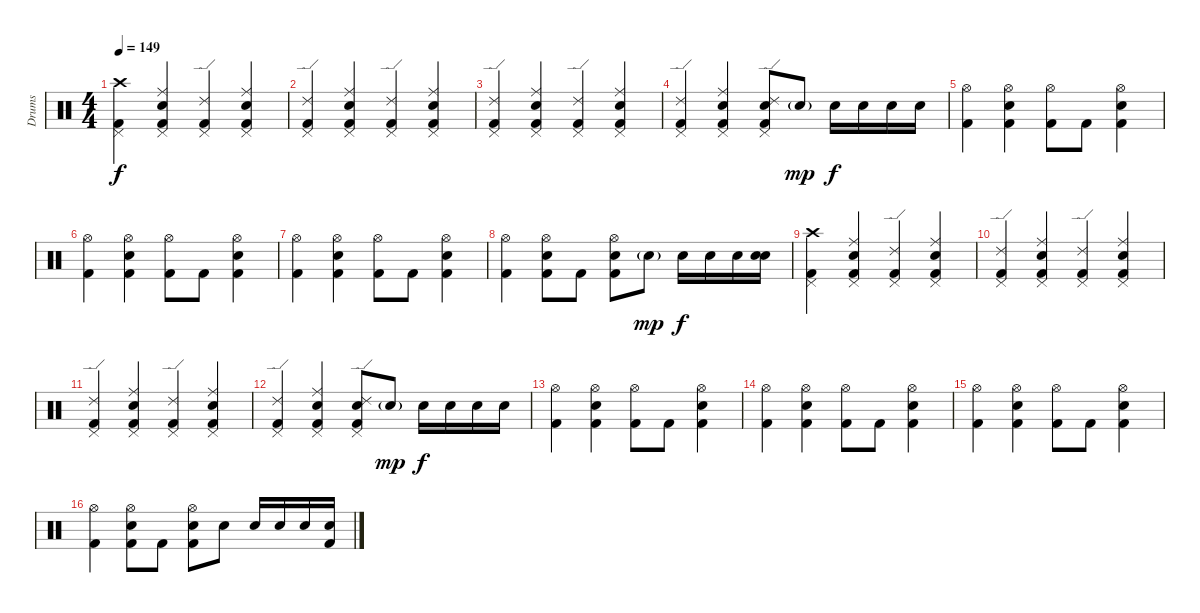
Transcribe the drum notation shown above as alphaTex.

\track ("Drums" "Drums") {instrument percussion}
\staff {score}
\articulation defaults
\ts (4 4)
\tempo 149
\clef neutral
\ks c
("Crash high (hit)" "Kick (hit) 2" "Pedal Hi-Hat (hit)").4{dy f} ("Ride (middle)" "Electric Snare (hit)" "Kick (hit) 2" "Pedal Hi-Hat (hit)").4 ("Ride (edge) 2" "Kick (hit) 2" "Pedal Hi-Hat (hit)").4 ("Ride (middle)" "Electric Snare (hit)" "Kick (hit) 2" "Pedal Hi-Hat (hit)").4 |
("Ride (edge) 2" "Kick (hit) 2" "Pedal Hi-Hat (hit)").4 ("Ride (middle)" "Electric Snare (hit)" "Kick (hit) 2" "Pedal Hi-Hat (hit)").4 ("Ride (edge) 2" "Kick (hit) 2" "Pedal Hi-Hat (hit)").4 ("Ride (middle)" "Electric Snare (hit)" "Kick (hit) 2" "Pedal Hi-Hat (hit)").4 |
("Ride (edge) 2" "Kick (hit) 2" "Pedal Hi-Hat (hit)").4 ("Ride (middle)" "Electric Snare (hit)" "Kick (hit) 2" "Pedal Hi-Hat (hit)").4 ("Ride (edge) 2" "Kick (hit) 2" "Pedal Hi-Hat (hit)").4 ("Ride (middle)" "Electric Snare (hit)" "Kick (hit) 2" "Pedal Hi-Hat (hit)").4 |
("Ride (edge) 2" "Kick (hit) 2" "Pedal Hi-Hat (hit)").4 ("Ride (middle)" "Electric Snare (hit)" "Kick (hit) 2" "Pedal Hi-Hat (hit)").4 ("Ride (edge) 2" "Electric Snare (hit)" "Kick (hit) 2" "Pedal Hi-Hat (hit)").8 "Electric Snare (hit)"{g}.8{dy mp} "Electric Snare (hit)".16{dy f} "Electric Snare (hit)".16 "Electric Snare (hit)".16 "Electric Snare (hit)".16 |
("Hi-Hat (open)" "Kick (hit) 2").4 ("Hi-Hat (open)" "Electric Snare (hit)" "Kick (hit) 2").4 ("Hi-Hat (open)" "Kick (hit) 2").8 "Kick (hit) 2".8 ("Hi-Hat (open)" "Electric Snare (hit)" "Kick (hit) 2").4 |
("Hi-Hat (open)" "Kick (hit) 2").4 ("Hi-Hat (open)" "Electric Snare (hit)" "Kick (hit) 2").4 ("Hi-Hat (open)" "Kick (hit) 2").8 "Kick (hit) 2".8 ("Hi-Hat (open)" "Electric Snare (hit)" "Kick (hit) 2").4 |
("Hi-Hat (open)" "Kick (hit) 2").4 ("Hi-Hat (open)" "Electric Snare (hit)" "Kick (hit) 2").4 ("Hi-Hat (open)" "Kick (hit) 2").8 "Kick (hit) 2".8 ("Hi-Hat (open)" "Electric Snare (hit)" "Kick (hit) 2").4 |
("Hi-Hat (open)" "Kick (hit) 2").4 ("Hi-Hat (open)" "Electric Snare (hit)" "Kick (hit) 2").8 "Kick (hit) 2".8 ("Hi-Hat (open)" "Electric Snare (hit)" "Kick (hit) 2").8 "Electric Snare (hit)"{g}.8{dy mp} "Electric Snare (hit)".16{dy f} "Electric Snare (hit)".16 "Electric Snare (hit)".16 ("Electric Snare (hit)" "Snare (hit) 2").16 |
("Crash high (hit)" "Kick (hit) 2" "Pedal Hi-Hat (hit)").4 ("Ride (middle)" "Electric Snare (hit)" "Kick (hit) 2" "Pedal Hi-Hat (hit)").4 ("Ride (edge) 2" "Kick (hit) 2" "Pedal Hi-Hat (hit)").4 ("Ride (middle)" "Electric Snare (hit)" "Kick (hit) 2" "Pedal Hi-Hat (hit)").4 |
("Ride (edge) 2" "Kick (hit) 2" "Pedal Hi-Hat (hit)").4 ("Ride (middle)" "Electric Snare (hit)" "Kick (hit) 2" "Pedal Hi-Hat (hit)").4 ("Ride (edge) 2" "Kick (hit) 2" "Pedal Hi-Hat (hit)").4 ("Ride (middle)" "Electric Snare (hit)" "Kick (hit) 2" "Pedal Hi-Hat (hit)").4 |
("Ride (edge) 2" "Kick (hit) 2" "Pedal Hi-Hat (hit)").4 ("Ride (middle)" "Electric Snare (hit)" "Kick (hit) 2" "Pedal Hi-Hat (hit)").4 ("Ride (edge) 2" "Kick (hit) 2" "Pedal Hi-Hat (hit)").4 ("Ride (middle)" "Electric Snare (hit)" "Kick (hit) 2" "Pedal Hi-Hat (hit)").4 |
("Ride (edge) 2" "Kick (hit) 2" "Pedal Hi-Hat (hit)").4 ("Ride (middle)" "Electric Snare (hit)" "Kick (hit) 2" "Pedal Hi-Hat (hit)").4 ("Ride (edge) 2" "Electric Snare (hit)" "Kick (hit) 2" "Pedal Hi-Hat (hit)").8 "Electric Snare (hit)"{g}.8{dy mp} "Electric Snare (hit)".16{dy f} "Electric Snare (hit)".16 "Electric Snare (hit)".16 "Electric Snare (hit)".16 |
("Hi-Hat (open)" "Kick (hit) 2").4 ("Hi-Hat (open)" "Electric Snare (hit)" "Kick (hit) 2").4 ("Hi-Hat (open)" "Kick (hit) 2").8 "Kick (hit) 2".8 ("Hi-Hat (open)" "Electric Snare (hit)" "Kick (hit) 2").4 |
("Hi-Hat (open)" "Kick (hit) 2").4 ("Hi-Hat (open)" "Electric Snare (hit)" "Kick (hit) 2").4 ("Hi-Hat (open)" "Kick (hit) 2").8 "Kick (hit) 2".8 ("Hi-Hat (open)" "Electric Snare (hit)" "Kick (hit) 2").4 |
("Hi-Hat (open)" "Kick (hit) 2").4 ("Hi-Hat (open)" "Electric Snare (hit)" "Kick (hit) 2").4 ("Hi-Hat (open)" "Kick (hit) 2").8 "Kick (hit) 2".8 ("Hi-Hat (open)" "Electric Snare (hit)" "Kick (hit) 2").4 |
("Hi-Hat (open)" "Kick (hit) 2").4 ("Hi-Hat (open)" "Electric Snare (hit)" "Kick (hit) 2").8 "Kick (hit) 2".8 ("Hi-Hat (open)" "Electric Snare (hit)" "Kick (hit) 2").8 "Electric Snare (hit)".8 "Snare (hit) 2".16 "Snare (hit) 2".16 "Snare (hit) 2".16 ("Electric Snare (hit)" "Kick (hit) 2").16
